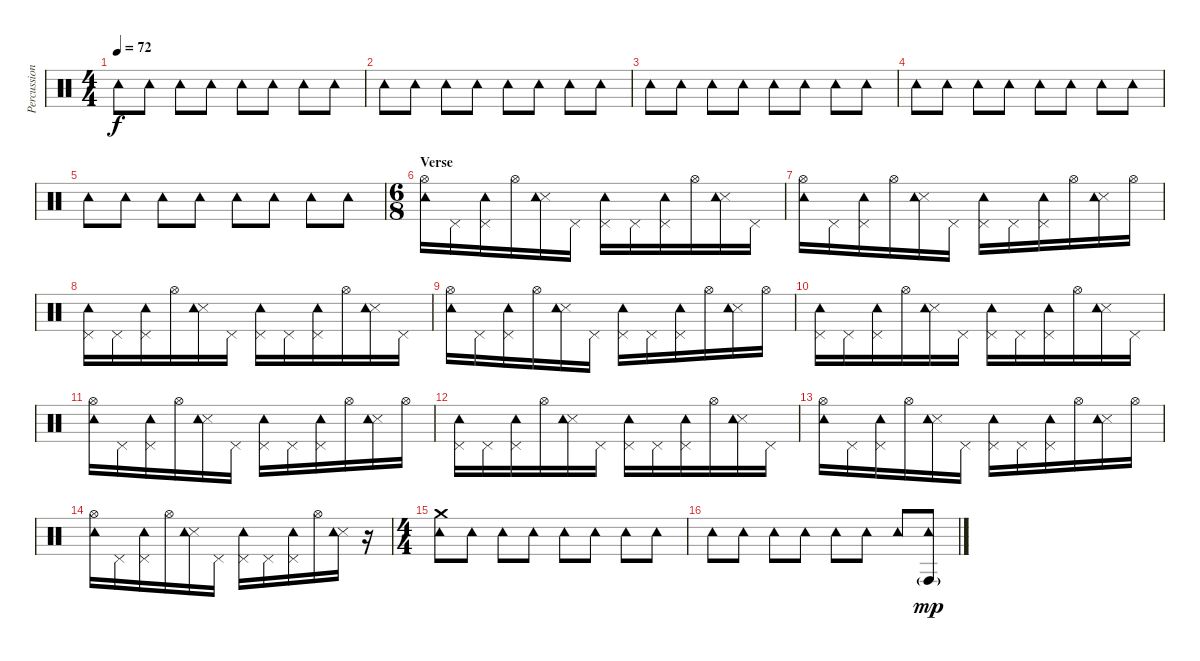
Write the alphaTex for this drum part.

\track ("Percussion" "Percussion") {instrument percussion}
\staff {score}
\articulation defaults
\ts (4 4)
\tempo 72
\clef neutral
\ks c "Tambourine (hit)".8{dy f} "Tambourine (hit)".8 "Tambourine (hit)".8 "Tambourine (hit)".8 "Tambourine (hit)".8 "Tambourine (hit)".8 "Tambourine (hit)".8 "Tambourine (hit)".8
|
"Tambourine (hit)".8 "Tambourine (hit)".8 "Tambourine (hit)".8 "Tambourine (hit)".8 "Tambourine (hit)".8 "Tambourine (hit)".8 "Tambourine (hit)".8 "Tambourine (hit)".8 |
"Tambourine (hit)".8 "Tambourine (hit)".8 "Tambourine (hit)".8 "Tambourine (hit)".8 "Tambourine (hit)".8 "Tambourine (hit)".8 "Tambourine (hit)".8 "Tambourine (hit)".8 |
"Tambourine (hit)".8 "Tambourine (hit)".8 "Tambourine (hit)".8 "Tambourine (hit)".8 "Tambourine (hit)".8 "Tambourine (hit)".8 "Tambourine (hit)".8 "Tambourine (hit)".8 |
"Tambourine (hit)".8 "Tambourine (hit)".8 "Tambourine (hit)".8 "Tambourine (hit)".8 "Tambourine (hit)".8 "Tambourine (hit)".8 "Tambourine (hit)".8 "Tambourine (hit)".8 |
\ts (6 8)
\section ("" "Verse")
("Hi-Hat (open)" "Tambourine (hit)").16 "Pedal Hi-Hat (hit)".16 ("Pedal Hi-Hat (hit)" "Tambourine (hit)").16 "Hi-Hat (open)".16 ("Snare (side stick) 3" "Tambourine (hit)").16 "Pedal Hi-Hat (hit)".16 ("Pedal Hi-Hat (hit)" "Tambourine (hit)").16 "Pedal Hi-Hat (hit)".16 ("Pedal Hi-Hat (hit)" "Tambourine (hit)").16 "Hi-Hat (open)".16 ("Snare (side stick) 3" "Tambourine (hit)").16 "Pedal Hi-Hat (hit)".16 |
("Hi-Hat (open)" "Tambourine (hit)").16 "Pedal Hi-Hat (hit)".16 ("Pedal Hi-Hat (hit)" "Tambourine (hit)").16 "Hi-Hat (open)".16 ("Snare (side stick) 3" "Tambourine (hit)").16 "Pedal Hi-Hat (hit)".16 ("Pedal Hi-Hat (hit)" "Tambourine (hit)").16 "Pedal Hi-Hat (hit)".16 ("Pedal Hi-Hat (hit)" "Tambourine (hit)").16 "Hi-Hat (open)".16 ("Snare (side stick) 3" "Tambourine (hit)").16 "Hi-Hat (open)".16 |
("Pedal Hi-Hat (hit)" "Tambourine (hit)").16 "Pedal Hi-Hat (hit)".16 ("Pedal Hi-Hat (hit)" "Tambourine (hit)").16 "Hi-Hat (open)".16 ("Snare (side stick) 3" "Tambourine (hit)").16 "Pedal Hi-Hat (hit)".16 ("Pedal Hi-Hat (hit)" "Tambourine (hit)").16 "Pedal Hi-Hat (hit)".16 ("Pedal Hi-Hat (hit)" "Tambourine (hit)").16 "Hi-Hat (open)".16 ("Snare (side stick) 3" "Tambourine (hit)").16 "Pedal Hi-Hat (hit)".16 |
("Hi-Hat (open)" "Tambourine (hit)").16 "Pedal Hi-Hat (hit)".16 ("Pedal Hi-Hat (hit)" "Tambourine (hit)").16 "Hi-Hat (open)".16 ("Snare (side stick) 3" "Tambourine (hit)").16 "Pedal Hi-Hat (hit)".16 ("Pedal Hi-Hat (hit)" "Tambourine (hit)").16 "Pedal Hi-Hat (hit)".16 ("Pedal Hi-Hat (hit)" "Tambourine (hit)").16 "Hi-Hat (open)".16 ("Snare (side stick) 3" "Tambourine (hit)").16 "Hi-Hat (open)".16 |
("Pedal Hi-Hat (hit)" "Tambourine (hit)").16 "Pedal Hi-Hat (hit)".16 ("Pedal Hi-Hat (hit)" "Tambourine (hit)").16 "Hi-Hat (open)".16 ("Snare (side stick) 3" "Tambourine (hit)").16 "Pedal Hi-Hat (hit)".16 ("Pedal Hi-Hat (hit)" "Tambourine (hit)").16 "Pedal Hi-Hat (hit)".16 ("Pedal Hi-Hat (hit)" "Tambourine (hit)").16 "Hi-Hat (open)".16 ("Snare (side stick) 3" "Tambourine (hit)").16 "Pedal Hi-Hat (hit)".16 |
("Hi-Hat (open)" "Tambourine (hit)").16 "Pedal Hi-Hat (hit)".16 ("Pedal Hi-Hat (hit)" "Tambourine (hit)").16 "Hi-Hat (open)".16 ("Snare (side stick) 3" "Tambourine (hit)").16 "Pedal Hi-Hat (hit)".16 ("Pedal Hi-Hat (hit)" "Tambourine (hit)").16 "Pedal Hi-Hat (hit)".16 ("Pedal Hi-Hat (hit)" "Tambourine (hit)").16 "Hi-Hat (open)".16 ("Snare (side stick) 3" "Tambourine (hit)").16 "Hi-Hat (open)".16 |
("Pedal Hi-Hat (hit)" "Tambourine (hit)").16 "Pedal Hi-Hat (hit)".16 ("Pedal Hi-Hat (hit)" "Tambourine (hit)").16 "Hi-Hat (open)".16 ("Snare (side stick) 3" "Tambourine (hit)").16 "Pedal Hi-Hat (hit)".16 ("Pedal Hi-Hat (hit)" "Tambourine (hit)").16 "Pedal Hi-Hat (hit)".16 ("Pedal Hi-Hat (hit)" "Tambourine (hit)").16 "Hi-Hat (open)".16 ("Snare (side stick) 3" "Tambourine (hit)").16 "Pedal Hi-Hat (hit)".16 |
("Hi-Hat (open)" "Tambourine (hit)").16 "Pedal Hi-Hat (hit)".16 ("Pedal Hi-Hat (hit)" "Tambourine (hit)").16 "Hi-Hat (open)".16 ("Snare (side stick) 3" "Tambourine (hit)").16 "Pedal Hi-Hat (hit)".16 ("Pedal Hi-Hat (hit)" "Tambourine (hit)").16 "Pedal Hi-Hat (hit)".16 ("Pedal Hi-Hat (hit)" "Tambourine (hit)").16 "Hi-Hat (open)".16 ("Snare (side stick) 3" "Tambourine (hit)").16 "Hi-Hat (open)".16 |
("Hi-Hat (open)" "Tambourine (hit)").16 "Pedal Hi-Hat (hit)".16 ("Pedal Hi-Hat (hit)" "Tambourine (hit)").16 "Hi-Hat (open)".16 ("Snare (side stick) 3" "Tambourine (hit)").16 "Pedal Hi-Hat (hit)".16 ("Pedal Hi-Hat (hit)" "Tambourine (hit)").16 "Pedal Hi-Hat (hit)".16 ("Pedal Hi-Hat (hit)" "Tambourine (hit)").16 "Hi-Hat (open)".16 ("Snare (side stick) 3" "Tambourine (hit)").16 r.16 |
\ts (4 4)
\section ("" "")
("Crash medium (hit)" "Tambourine (hit)").8 "Tambourine (hit)".8 "Tambourine (hit)".8 "Tambourine (hit)".8 "Tambourine (hit)".8 "Tambourine (hit)".8 "Tambourine (hit)".8 "Tambourine (hit)".8 |
"Tambourine (hit)".8 "Tambourine (hit)".8 "Tambourine (hit)".8 "Tambourine (hit)".8 "Tambourine (hit)".8 "Tambourine (hit)".8 "Tambourine (hit)".8 ("Tambourine (hit)" "Conga high (hit)"{g}).8{dy mp}
